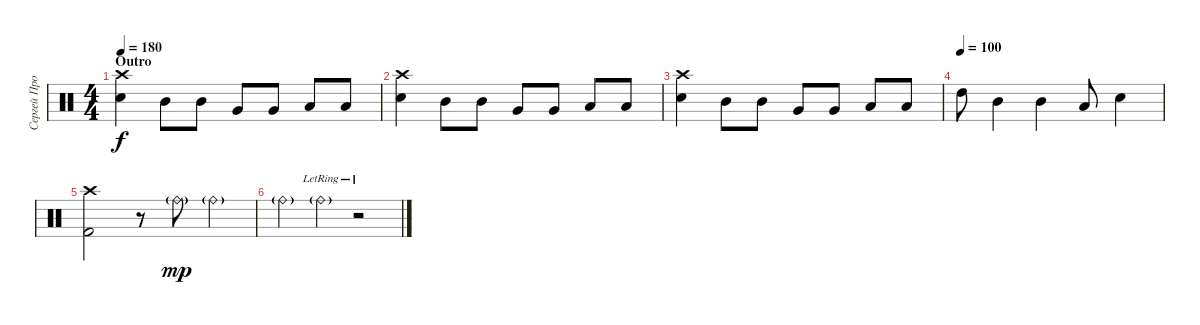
\track ("Сергей Прокофьев" "Сергей Про") {instrument percussion}
\staff {score}
\articulation defaults
\ts (4 4)
\section ("" "Outro")
\tempo 180
\clef neutral
\ks c
("Crash high (hit)" "Snare (hit) 2").4{dy f} "Mid Tom (hit)".8 "Mid Tom (hit)".8 "Very Low Tom (hit)".8 "Very Low Tom (hit)".8 "Low Floor Tom (hit)".8 "Low Floor Tom (hit)".8 |
("Crash high (hit)" "Snare (hit) 2").4 "Mid Tom (hit)".8 "Mid Tom (hit)".8 "Very Low Tom (hit)".8 "Very Low Tom (hit)".8 "Low Floor Tom (hit)".8 "Low Floor Tom (hit)".8 |
("Crash high (hit)" "Snare (hit) 2").4 "Mid Tom (hit)".8 "Mid Tom (hit)".8 "Very Low Tom (hit)".8 "Very Low Tom (hit)".8 "Low Floor Tom (hit)".8 "Low Floor Tom (hit)".8 |
\tempo (100)
"High Tom (hit)".8 "Mid Tom (hit)".4 "Mid Tom (hit)".4 "Low Floor Tom (hit)".8 "Snare (hit) 2".4 |
("Crash high (hit)" "Kick (hit) 2").2 r.8 "Ride (bell)"{g}.8{dy mp} "Ride (bell)"{g}.4 |
"Ride (bell)"{g}.4 "Ride (bell)"{g lr}.4 r.2
